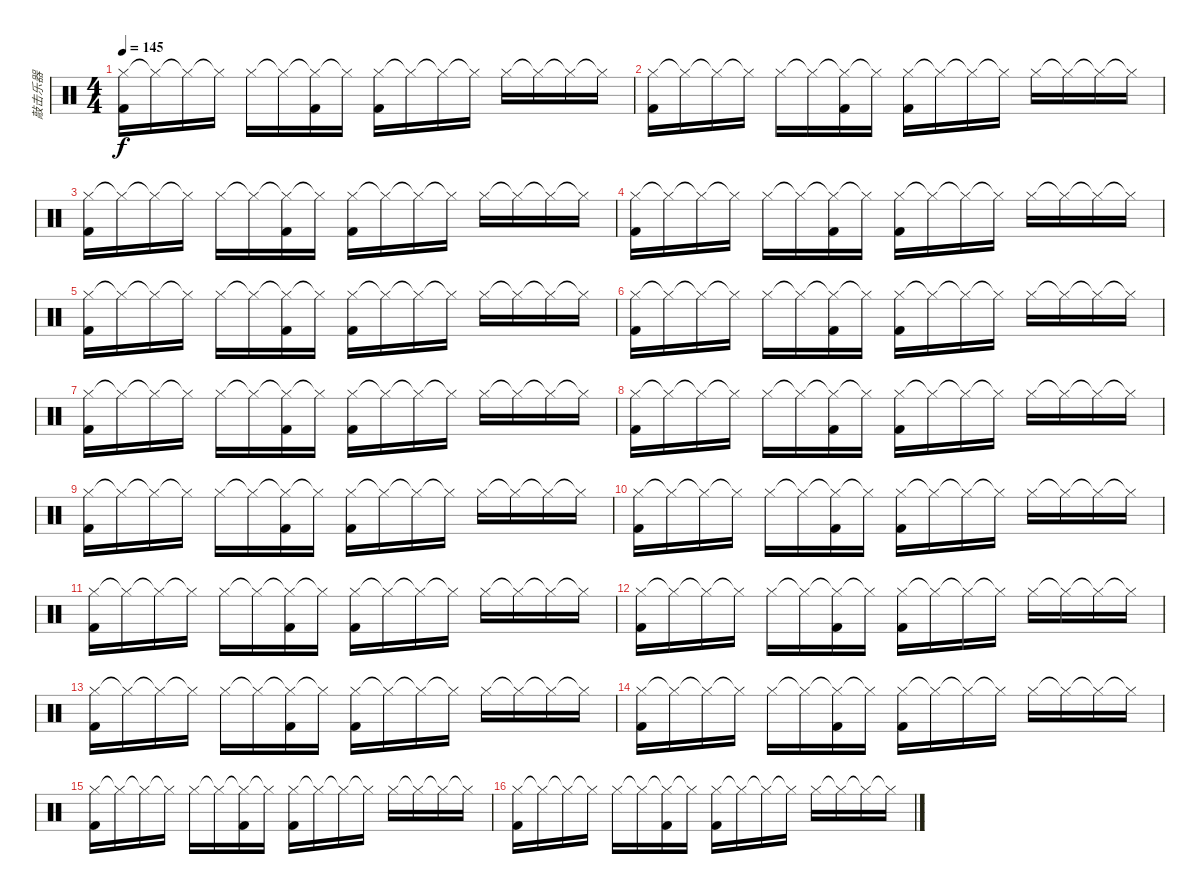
\track ("敲击乐器" "敲击乐器") {instrument percussion}
\staff {score}
\articulation defaults
\ts (4 4)
\tempo 145
\clef neutral
\ks c
("Hi-Hat (closed)" "Kick (hit) 2").16{dy f} "Hi-Hat (closed)"{t}.16 "Hi-Hat (closed)"{t}.16 "Hi-Hat (closed)"{t}.16 "Hi-Hat (closed)".16 "Hi-Hat (closed)"{t}.16 ("Hi-Hat (closed)"{t} "Kick (hit) 2").16 "Hi-Hat (closed)"{t}.16 ("Hi-Hat (closed)" "Kick (hit) 2").16 "Hi-Hat (closed)"{t}.16 "Hi-Hat (closed)"{t}.16 "Hi-Hat (closed)"{t}.16 "Hi-Hat (closed)".16 "Hi-Hat (closed)"{t}.16 "Hi-Hat (closed)"{t}.16 "Hi-Hat (closed)"{t}.16 |
("Hi-Hat (closed)" "Kick (hit) 2").16 "Hi-Hat (closed)"{t}.16 "Hi-Hat (closed)"{t}.16 "Hi-Hat (closed)"{t}.16 "Hi-Hat (closed)".16 "Hi-Hat (closed)"{t}.16 ("Hi-Hat (closed)"{t} "Kick (hit) 2").16 "Hi-Hat (closed)"{t}.16 ("Hi-Hat (closed)" "Kick (hit) 2").16 "Hi-Hat (closed)"{t}.16 "Hi-Hat (closed)"{t}.16 "Hi-Hat (closed)"{t}.16 "Hi-Hat (closed)".16 "Hi-Hat (closed)"{t}.16 "Hi-Hat (closed)"{t}.16 "Hi-Hat (closed)"{t}.16 |
("Hi-Hat (closed)" "Kick (hit) 2").16 "Hi-Hat (closed)"{t}.16 "Hi-Hat (closed)"{t}.16 "Hi-Hat (closed)"{t}.16 "Hi-Hat (closed)".16 "Hi-Hat (closed)"{t}.16 ("Hi-Hat (closed)"{t} "Kick (hit) 2").16 "Hi-Hat (closed)"{t}.16 ("Hi-Hat (closed)" "Kick (hit) 2").16 "Hi-Hat (closed)"{t}.16 "Hi-Hat (closed)"{t}.16 "Hi-Hat (closed)"{t}.16 "Hi-Hat (closed)".16 "Hi-Hat (closed)"{t}.16 "Hi-Hat (closed)"{t}.16 "Hi-Hat (closed)"{t}.16 |
("Hi-Hat (closed)" "Kick (hit) 2").16 "Hi-Hat (closed)"{t}.16 "Hi-Hat (closed)"{t}.16 "Hi-Hat (closed)"{t}.16 "Hi-Hat (closed)".16 "Hi-Hat (closed)"{t}.16 ("Hi-Hat (closed)"{t} "Kick (hit) 2").16 "Hi-Hat (closed)"{t}.16 ("Hi-Hat (closed)" "Kick (hit) 2").16 "Hi-Hat (closed)"{t}.16 "Hi-Hat (closed)"{t}.16 "Hi-Hat (closed)"{t}.16 "Hi-Hat (closed)".16 "Hi-Hat (closed)"{t}.16 "Hi-Hat (closed)"{t}.16 "Hi-Hat (closed)"{t}.16 |
("Hi-Hat (closed)" "Kick (hit) 2").16 "Hi-Hat (closed)"{t}.16 "Hi-Hat (closed)"{t}.16 "Hi-Hat (closed)"{t}.16 "Hi-Hat (closed)".16 "Hi-Hat (closed)"{t}.16 ("Hi-Hat (closed)"{t} "Kick (hit) 2").16 "Hi-Hat (closed)"{t}.16 ("Hi-Hat (closed)" "Kick (hit) 2").16 "Hi-Hat (closed)"{t}.16 "Hi-Hat (closed)"{t}.16 "Hi-Hat (closed)"{t}.16 "Hi-Hat (closed)".16 "Hi-Hat (closed)"{t}.16 "Hi-Hat (closed)"{t}.16 "Hi-Hat (closed)"{t}.16 |
("Hi-Hat (closed)" "Kick (hit) 2").16 "Hi-Hat (closed)"{t}.16 "Hi-Hat (closed)"{t}.16 "Hi-Hat (closed)"{t}.16 "Hi-Hat (closed)".16 "Hi-Hat (closed)"{t}.16 ("Hi-Hat (closed)"{t} "Kick (hit) 2").16 "Hi-Hat (closed)"{t}.16 ("Hi-Hat (closed)" "Kick (hit) 2").16 "Hi-Hat (closed)"{t}.16 "Hi-Hat (closed)"{t}.16 "Hi-Hat (closed)"{t}.16 "Hi-Hat (closed)".16 "Hi-Hat (closed)"{t}.16 "Hi-Hat (closed)"{t}.16 "Hi-Hat (closed)"{t}.16 |
("Hi-Hat (closed)" "Kick (hit) 2").16 "Hi-Hat (closed)"{t}.16 "Hi-Hat (closed)"{t}.16 "Hi-Hat (closed)"{t}.16 "Hi-Hat (closed)".16 "Hi-Hat (closed)"{t}.16 ("Hi-Hat (closed)"{t} "Kick (hit) 2").16 "Hi-Hat (closed)"{t}.16 ("Hi-Hat (closed)" "Kick (hit) 2").16 "Hi-Hat (closed)"{t}.16 "Hi-Hat (closed)"{t}.16 "Hi-Hat (closed)"{t}.16 "Hi-Hat (closed)".16 "Hi-Hat (closed)"{t}.16 "Hi-Hat (closed)"{t}.16 "Hi-Hat (closed)"{t}.16 |
("Hi-Hat (closed)" "Kick (hit) 2").16 "Hi-Hat (closed)"{t}.16 "Hi-Hat (closed)"{t}.16 "Hi-Hat (closed)"{t}.16 "Hi-Hat (closed)".16 "Hi-Hat (closed)"{t}.16 ("Hi-Hat (closed)"{t} "Kick (hit) 2").16 "Hi-Hat (closed)"{t}.16 ("Hi-Hat (closed)" "Kick (hit) 2").16 "Hi-Hat (closed)"{t}.16 "Hi-Hat (closed)"{t}.16 "Hi-Hat (closed)"{t}.16 "Hi-Hat (closed)".16 "Hi-Hat (closed)"{t}.16 "Hi-Hat (closed)"{t}.16 "Hi-Hat (closed)"{t}.16 |
("Hi-Hat (closed)" "Kick (hit) 2").16 "Hi-Hat (closed)"{t}.16 "Hi-Hat (closed)"{t}.16 "Hi-Hat (closed)"{t}.16 "Hi-Hat (closed)".16 "Hi-Hat (closed)"{t}.16 ("Hi-Hat (closed)"{t} "Kick (hit) 2").16 "Hi-Hat (closed)"{t}.16 ("Hi-Hat (closed)" "Kick (hit) 2").16 "Hi-Hat (closed)"{t}.16 "Hi-Hat (closed)"{t}.16 "Hi-Hat (closed)"{t}.16 "Hi-Hat (closed)".16 "Hi-Hat (closed)"{t}.16 "Hi-Hat (closed)"{t}.16 "Hi-Hat (closed)"{t}.16 |
("Hi-Hat (closed)" "Kick (hit) 2").16 "Hi-Hat (closed)"{t}.16 "Hi-Hat (closed)"{t}.16 "Hi-Hat (closed)"{t}.16 "Hi-Hat (closed)".16 "Hi-Hat (closed)"{t}.16 ("Hi-Hat (closed)"{t} "Kick (hit) 2").16 "Hi-Hat (closed)"{t}.16 ("Hi-Hat (closed)" "Kick (hit) 2").16 "Hi-Hat (closed)"{t}.16 "Hi-Hat (closed)"{t}.16 "Hi-Hat (closed)"{t}.16 "Hi-Hat (closed)".16 "Hi-Hat (closed)"{t}.16 "Hi-Hat (closed)"{t}.16 "Hi-Hat (closed)"{t}.16 |
("Hi-Hat (closed)" "Kick (hit) 2").16 "Hi-Hat (closed)"{t}.16 "Hi-Hat (closed)"{t}.16 "Hi-Hat (closed)"{t}.16 "Hi-Hat (closed)".16 "Hi-Hat (closed)"{t}.16 ("Hi-Hat (closed)"{t} "Kick (hit) 2").16 "Hi-Hat (closed)"{t}.16 ("Hi-Hat (closed)" "Kick (hit) 2").16 "Hi-Hat (closed)"{t}.16 "Hi-Hat (closed)"{t}.16 "Hi-Hat (closed)"{t}.16 "Hi-Hat (closed)".16 "Hi-Hat (closed)"{t}.16 "Hi-Hat (closed)"{t}.16 "Hi-Hat (closed)"{t}.16 |
("Hi-Hat (closed)" "Kick (hit) 2").16 "Hi-Hat (closed)"{t}.16 "Hi-Hat (closed)"{t}.16 "Hi-Hat (closed)"{t}.16 "Hi-Hat (closed)".16 "Hi-Hat (closed)"{t}.16 ("Hi-Hat (closed)"{t} "Kick (hit) 2").16 "Hi-Hat (closed)"{t}.16 ("Hi-Hat (closed)" "Kick (hit) 2").16 "Hi-Hat (closed)"{t}.16 "Hi-Hat (closed)"{t}.16 "Hi-Hat (closed)"{t}.16 "Hi-Hat (closed)".16 "Hi-Hat (closed)"{t}.16 "Hi-Hat (closed)"{t}.16 "Hi-Hat (closed)"{t}.16 |
("Hi-Hat (closed)" "Kick (hit) 2").16 "Hi-Hat (closed)"{t}.16 "Hi-Hat (closed)"{t}.16 "Hi-Hat (closed)"{t}.16 "Hi-Hat (closed)".16 "Hi-Hat (closed)"{t}.16 ("Hi-Hat (closed)"{t} "Kick (hit) 2").16 "Hi-Hat (closed)"{t}.16 ("Hi-Hat (closed)" "Kick (hit) 2").16 "Hi-Hat (closed)"{t}.16 "Hi-Hat (closed)"{t}.16 "Hi-Hat (closed)"{t}.16 "Hi-Hat (closed)".16 "Hi-Hat (closed)"{t}.16 "Hi-Hat (closed)"{t}.16 "Hi-Hat (closed)"{t}.16 |
("Hi-Hat (closed)" "Kick (hit) 2").16 "Hi-Hat (closed)"{t}.16 "Hi-Hat (closed)"{t}.16 "Hi-Hat (closed)"{t}.16 "Hi-Hat (closed)".16 "Hi-Hat (closed)"{t}.16 ("Hi-Hat (closed)"{t} "Kick (hit) 2").16 "Hi-Hat (closed)"{t}.16 ("Hi-Hat (closed)" "Kick (hit) 2").16 "Hi-Hat (closed)"{t}.16 "Hi-Hat (closed)"{t}.16 "Hi-Hat (closed)"{t}.16 "Hi-Hat (closed)".16 "Hi-Hat (closed)"{t}.16 "Hi-Hat (closed)"{t}.16 "Hi-Hat (closed)"{t}.16 |
("Hi-Hat (closed)" "Kick (hit) 2").16 "Hi-Hat (closed)"{t}.16 "Hi-Hat (closed)"{t}.16 "Hi-Hat (closed)"{t}.16 "Hi-Hat (closed)".16 "Hi-Hat (closed)"{t}.16 ("Hi-Hat (closed)"{t} "Kick (hit) 2").16 "Hi-Hat (closed)"{t}.16 ("Hi-Hat (closed)" "Kick (hit) 2").16 "Hi-Hat (closed)"{t}.16 "Hi-Hat (closed)"{t}.16 "Hi-Hat (closed)"{t}.16 "Hi-Hat (closed)".16 "Hi-Hat (closed)"{t}.16 "Hi-Hat (closed)"{t}.16 "Hi-Hat (closed)"{t}.16 |
("Hi-Hat (closed)" "Kick (hit) 2").16 "Hi-Hat (closed)"{t}.16 "Hi-Hat (closed)"{t}.16 "Hi-Hat (closed)"{t}.16 "Hi-Hat (closed)".16 "Hi-Hat (closed)"{t}.16 ("Hi-Hat (closed)"{t} "Kick (hit) 2").16 "Hi-Hat (closed)"{t}.16 ("Hi-Hat (closed)" "Kick (hit) 2").16 "Hi-Hat (closed)"{t}.16 "Hi-Hat (closed)"{t}.16 "Hi-Hat (closed)"{t}.16 "Hi-Hat (closed)".16 "Hi-Hat (closed)"{t}.16 "Hi-Hat (closed)"{t}.16 "Hi-Hat (closed)"{t}.16
